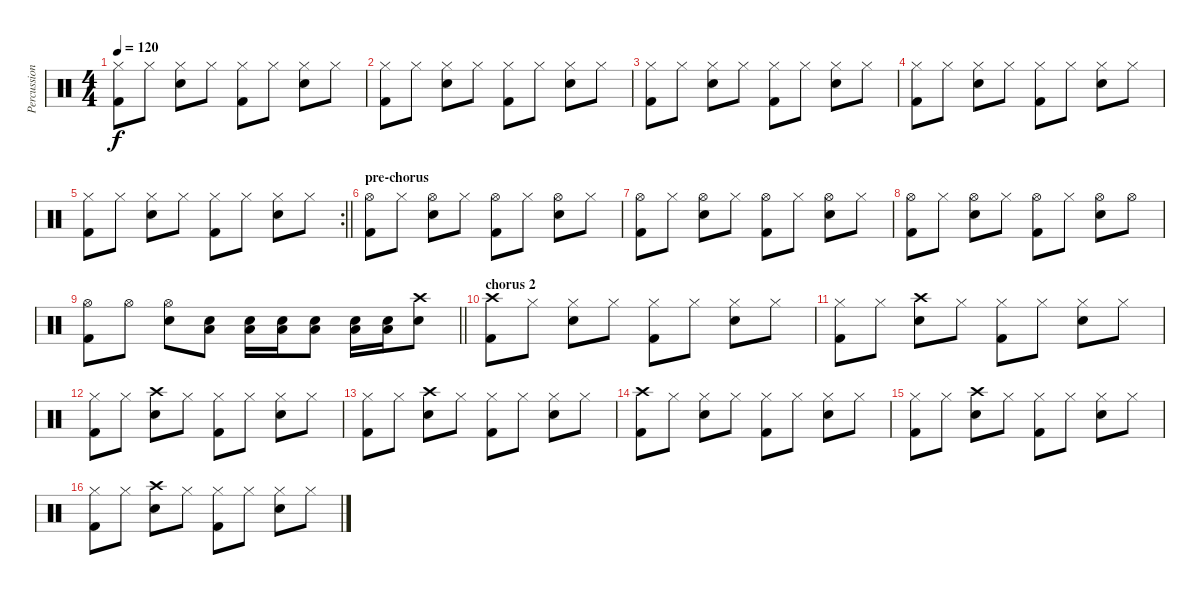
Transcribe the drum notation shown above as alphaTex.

\track ("Percussion" "Percussion") {instrument percussion}
\staff {score}
\articulation defaults
\ts (4 4)
\tempo 120
\clef neutral
\ks c
("Hi-Hat (closed)" "Kick (hit) 2").8{dy f} "Hi-Hat (closed)".8 ("Hi-Hat (closed)" "Snare (hit) 2").8 "Hi-Hat (closed)".8 ("Hi-Hat (closed)" "Kick (hit) 2").8 "Hi-Hat (closed)".8 ("Hi-Hat (closed)" "Snare (hit) 2").8 "Hi-Hat (closed)".8 |
("Hi-Hat (closed)" "Kick (hit) 2").8 "Hi-Hat (closed)".8 ("Hi-Hat (closed)" "Snare (hit) 2").8 "Hi-Hat (closed)".8 ("Hi-Hat (closed)" "Kick (hit) 2").8 "Hi-Hat (closed)".8 ("Hi-Hat (closed)" "Snare (hit) 2").8 "Hi-Hat (closed)".8 |
("Hi-Hat (closed)" "Kick (hit) 2").8 "Hi-Hat (closed)".8 ("Hi-Hat (closed)" "Snare (hit) 2").8 "Hi-Hat (closed)".8 ("Hi-Hat (closed)" "Kick (hit) 2").8 "Hi-Hat (closed)".8 ("Hi-Hat (closed)" "Snare (hit) 2").8 "Hi-Hat (closed)".8 |
("Hi-Hat (closed)" "Kick (hit) 2").8 "Hi-Hat (closed)".8 ("Hi-Hat (closed)" "Snare (hit) 2").8 "Hi-Hat (closed)".8 ("Hi-Hat (closed)" "Kick (hit) 2").8 "Hi-Hat (closed)".8 ("Hi-Hat (closed)" "Snare (hit) 2").8 "Hi-Hat (closed)".8 |
\rc 2
\barLineRight lightlight
("Hi-Hat (closed)" "Kick (hit) 2").8 "Hi-Hat (closed)".8 ("Hi-Hat (closed)" "Snare (hit) 2").8 "Hi-Hat (closed)".8 ("Hi-Hat (closed)" "Kick (hit) 2").8 "Hi-Hat (closed)".8 ("Hi-Hat (closed)" "Snare (hit) 2").8 "Hi-Hat (closed)".8 |
\section ("" "pre-chorus")
("Hi-Hat (open)" "Kick (hit) 2").8 "Hi-Hat (closed)".8 ("Hi-Hat (open)" "Snare (hit) 2").8 "Hi-Hat (closed)".8 ("Hi-Hat (open)" "Kick (hit) 2").8 "Hi-Hat (closed)".8 ("Hi-Hat (open)" "Snare (hit) 2").8 "Hi-Hat (closed)".8 |
("Hi-Hat (open)" "Kick (hit) 2").8 "Hi-Hat (closed)".8 ("Hi-Hat (open)" "Snare (hit) 2").8 "Hi-Hat (closed)".8 ("Hi-Hat (open)" "Kick (hit) 2").8 "Hi-Hat (closed)".8 ("Hi-Hat (open)" "Snare (hit) 2").8 "Hi-Hat (closed)".8 |
("Hi-Hat (open)" "Kick (hit) 2").8 "Hi-Hat (closed)".8 ("Hi-Hat (open)" "Snare (hit) 2").8 "Hi-Hat (closed)".8 ("Hi-Hat (open)" "Kick (hit) 2").8 "Hi-Hat (closed)".8 ("Hi-Hat (open)" "Snare (hit) 2").8 "Hi-Hat (open)".8 |
\barLineRight lightlight
("Hi-Hat (open)" "Kick (hit) 2").8 "Hi-Hat (open)".8 ("Hi-Hat (open)" "Snare (hit) 2").8 ("Low Tom (hit)" "Snare (hit) 2").8 ("Low Tom (hit)" "Snare (hit) 2").16 ("Low Tom (hit)" "Snare (hit) 2").16 ("Low Tom (hit)" "Snare (hit) 2").8 ("Low Tom (hit)" "Snare (hit) 2").16 ("Low Tom (hit)" "Snare (hit) 2").16 ("Crash high (hit)" "Snare (hit) 2").8 |
\section ("" "chorus 2")
("Crash high (hit)" "Kick (hit) 2").8 "Hi-Hat (closed)".8 ("Hi-Hat (closed)" "Snare (hit) 2").8 "Hi-Hat (closed)".8 ("Hi-Hat (closed)" "Kick (hit) 2").8 "Hi-Hat (closed)".8 ("Hi-Hat (closed)" "Snare (hit) 2").8 "Hi-Hat (closed)".8 |
("Hi-Hat (closed)" "Kick (hit) 2").8 "Hi-Hat (closed)".8 ("Crash high (hit)" "Snare (hit) 2").8 "Hi-Hat (closed)".8 ("Hi-Hat (closed)" "Kick (hit) 2").8 "Hi-Hat (closed)".8 ("Hi-Hat (closed)" "Snare (hit) 2").8 "Hi-Hat (closed)".8 |
("Hi-Hat (closed)" "Kick (hit) 2").8 "Hi-Hat (closed)".8 ("Crash high (hit)" "Snare (hit) 2").8 "Hi-Hat (closed)".8 ("Hi-Hat (closed)" "Kick (hit) 2").8 "Hi-Hat (closed)".8 ("Hi-Hat (closed)" "Snare (hit) 2").8 "Hi-Hat (closed)".8 |
("Hi-Hat (closed)" "Kick (hit) 2").8 "Hi-Hat (closed)".8 ("Crash high (hit)" "Snare (hit) 2").8 "Hi-Hat (closed)".8 ("Hi-Hat (closed)" "Kick (hit) 2").8 "Hi-Hat (closed)".8 ("Hi-Hat (closed)" "Snare (hit) 2").8 "Hi-Hat (closed)".8 |
("Crash high (hit)" "Kick (hit) 2").8 "Hi-Hat (closed)".8 ("Hi-Hat (closed)" "Snare (hit) 2").8 "Hi-Hat (closed)".8 ("Hi-Hat (closed)" "Kick (hit) 2").8 "Hi-Hat (closed)".8 ("Hi-Hat (closed)" "Snare (hit) 2").8 "Hi-Hat (closed)".8 |
("Hi-Hat (closed)" "Kick (hit) 2").8 "Hi-Hat (closed)".8 ("Crash high (hit)" "Snare (hit) 2").8 "Hi-Hat (closed)".8 ("Hi-Hat (closed)" "Kick (hit) 2").8 "Hi-Hat (closed)".8 ("Hi-Hat (closed)" "Snare (hit) 2").8 "Hi-Hat (closed)".8 |
("Hi-Hat (closed)" "Kick (hit) 2").8 "Hi-Hat (closed)".8 ("Crash high (hit)" "Snare (hit) 2").8 "Hi-Hat (closed)".8 ("Hi-Hat (closed)" "Kick (hit) 2").8 "Hi-Hat (closed)".8 ("Hi-Hat (closed)" "Snare (hit) 2").8 "Hi-Hat (closed)".8
